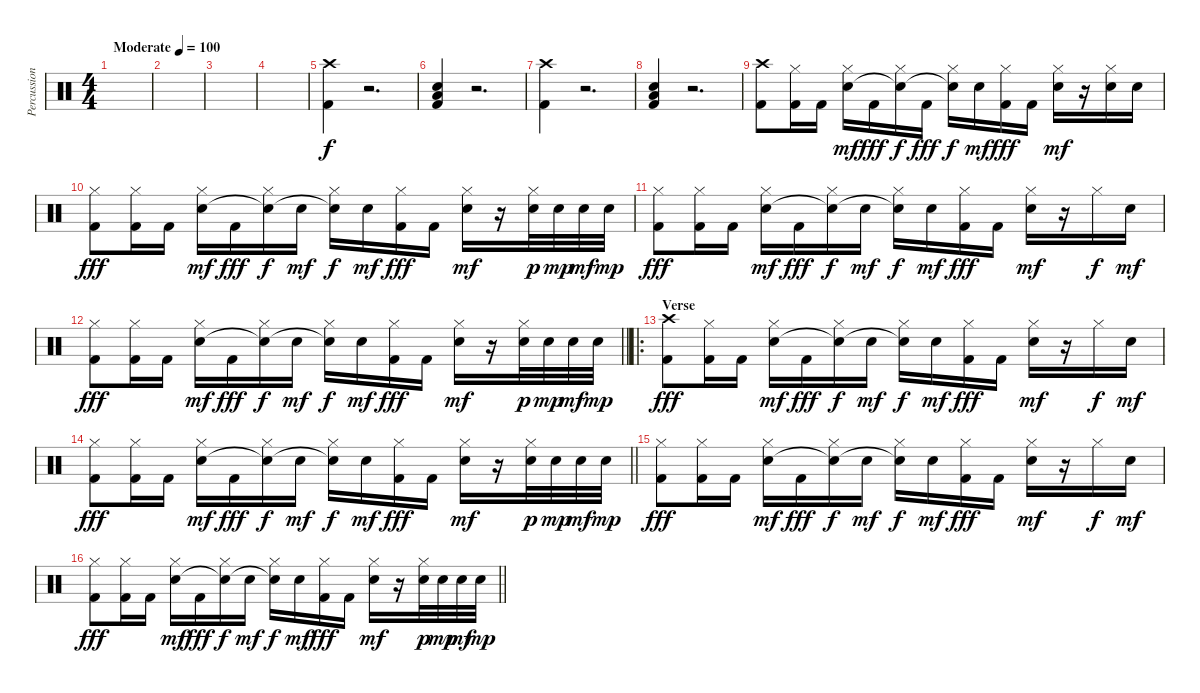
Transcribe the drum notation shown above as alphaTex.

\track ("Percussioni" "Percussion") {instrument percussion}
\staff {score}
\articulation defaults
\ts (4 4)
\tempo (100 "Moderate")
\clef neutral
\ks c
|
|
|
|
("Crash high (hit)" "Kick (hit) 2").4 r.2{d} |
("Snare (hit) 2" "Low Floor Tom (hit)" "Kick (hit) 2").4 r.2{d} |
("Crash high (hit)" "Kick (hit) 2").4 r.2{d} |
("Snare (hit) 2" "Low Floor Tom (hit)" "Kick (hit) 2").4 r.2{d} |
("Crash high (hit)" "Kick (hit) 2").8 ("Hi-Hat (closed)" "Kick (hit) 2").16 "Kick (hit) 2".16 ("Hi-Hat (closed)" "Snare (hit) 2").16{dy mf} "Kick (hit) 2".16{dy fff} ("Hi-Hat (closed)" "Snare (hit)"{t}).16{dy f} "Kick (hit) 2".16{dy fff} ("Hi-Hat (closed)" "Snare (hit)"{t}).16{dy f} "Snare (hit) 2".16{dy mf} ("Hi-Hat (closed)" "Kick (hit) 2").16{dy fff} "Kick (hit) 2".16 ("Hi-Hat (closed)" "Snare (hit) 2").16{dy mf} r.16 ("Hi-Hat (closed)" "Snare (hit) 2").16 "Snare (hit) 2".16 |
("Hi-Hat (closed)" "Kick (hit) 2").8{dy fff} ("Hi-Hat (closed)" "Kick (hit) 2").16 "Kick (hit) 2".16 ("Hi-Hat (closed)" "Snare (hit) 2").16{dy mf} "Kick (hit) 2".16{dy fff} ("Hi-Hat (closed)" "Snare (hit)"{t}).16{dy f} "Snare (hit) 2".16{dy mf} ("Hi-Hat (closed)" "Snare (hit)"{t}).16{dy f} "Snare (hit) 2".16{dy mf} ("Hi-Hat (closed)" "Kick (hit) 2").16{dy fff} "Kick (hit) 2".16 ("Hi-Hat (closed)" "Snare (hit) 2").16{dy mf} r.16 ("Hi-Hat (closed)" "Snare (hit) 2").32{dy p} "Snare (hit) 2".32{dy mp} "Snare (hit) 2".32{dy mf} "Snare (hit) 2".32{dy mp} |
("Hi-Hat (closed)" "Kick (hit) 2").8{dy fff} ("Hi-Hat (closed)" "Kick (hit) 2").16 "Kick (hit) 2".16 ("Hi-Hat (closed)" "Snare (hit) 2").16{dy mf} "Kick (hit) 2".16{dy fff} ("Hi-Hat (closed)" "Snare (hit)"{t}).16{dy f} "Snare (hit) 2".16{dy mf} ("Hi-Hat (closed)" "Snare (hit)"{t}).16{dy f} "Snare (hit) 2".16{dy mf} ("Hi-Hat (closed)" "Kick (hit) 2").16{dy fff} "Kick (hit) 2".16 ("Hi-Hat (closed)" "Snare (hit) 2").16{dy mf} r.16 "Hi-Hat (closed)".16{dy f} "Snare (hit) 2".16{dy mf} |
\barLineRight lightlight
("Hi-Hat (closed)" "Kick (hit) 2").8{dy fff} ("Hi-Hat (closed)" "Kick (hit) 2").16 "Kick (hit) 2".16 ("Hi-Hat (closed)" "Snare (hit) 2").16{dy mf} "Kick (hit) 2".16{dy fff} ("Hi-Hat (closed)" "Snare (hit)"{t}).16{dy f} "Snare (hit) 2".16{dy mf} ("Hi-Hat (closed)" "Snare (hit)"{t}).16{dy f} "Snare (hit) 2".16{dy mf} ("Hi-Hat (closed)" "Kick (hit) 2").16{dy fff} "Kick (hit) 2".16 ("Hi-Hat (closed)" "Snare (hit) 2").16{dy mf} r.16 ("Hi-Hat (closed)" "Snare (hit) 2").32{dy p} "Snare (hit) 2".32{dy mp} "Snare (hit) 2".32{dy mf} "Snare (hit) 2".32{dy mp} |
\ro
\section ("" "Verse")
("Crash high (hit)" "Kick (hit) 2").8{dy fff} ("Hi-Hat (closed)" "Kick (hit) 2").16 "Kick (hit) 2".16 ("Hi-Hat (closed)" "Snare (hit) 2").16{dy mf} "Kick (hit) 2".16{dy fff} ("Hi-Hat (closed)" "Snare (hit)"{t}).16{dy f} "Snare (hit) 2".16{dy mf} ("Hi-Hat (closed)" "Snare (hit)"{t}).16{dy f} "Snare (hit) 2".16{dy mf} ("Hi-Hat (closed)" "Kick (hit) 2").16{dy fff} "Kick (hit) 2".16 ("Hi-Hat (closed)" "Snare (hit) 2").16{dy mf} r.16 "Hi-Hat (closed)".16{dy f} "Snare (hit) 2".16{dy mf} |
\barLineRight lightlight
("Hi-Hat (closed)" "Kick (hit) 2").8{dy fff} ("Hi-Hat (closed)" "Kick (hit) 2").16 "Kick (hit) 2".16 ("Hi-Hat (closed)" "Snare (hit) 2").16{dy mf} "Kick (hit) 2".16{dy fff} ("Hi-Hat (closed)" "Snare (hit)"{t}).16{dy f} "Snare (hit) 2".16{dy mf} ("Hi-Hat (closed)" "Snare (hit)"{t}).16{dy f} "Snare (hit) 2".16{dy mf} ("Hi-Hat (closed)" "Kick (hit) 2").16{dy fff} "Kick (hit) 2".16 ("Hi-Hat (closed)" "Snare (hit) 2").16{dy mf} r.16 ("Hi-Hat (closed)" "Snare (hit) 2").32{dy p} "Snare (hit) 2".32{dy mp} "Snare (hit) 2".32{dy mf} "Snare (hit) 2".32{dy mp} |
("Hi-Hat (closed)" "Kick (hit) 2").8{dy fff} ("Hi-Hat (closed)" "Kick (hit) 2").16 "Kick (hit) 2".16 ("Hi-Hat (closed)" "Snare (hit) 2").16{dy mf} "Kick (hit) 2".16{dy fff} ("Hi-Hat (closed)" "Snare (hit)"{t}).16{dy f} "Snare (hit) 2".16{dy mf} ("Hi-Hat (closed)" "Snare (hit)"{t}).16{dy f} "Snare (hit) 2".16{dy mf} ("Hi-Hat (closed)" "Kick (hit) 2").16{dy fff} "Kick (hit) 2".16 ("Hi-Hat (closed)" "Snare (hit) 2").16{dy mf} r.16 "Hi-Hat (closed)".16{dy f} "Snare (hit) 2".16{dy mf} |
\barLineRight lightlight
("Hi-Hat (closed)" "Kick (hit) 2").8{dy fff} ("Hi-Hat (closed)" "Kick (hit) 2").16 "Kick (hit) 2".16 ("Hi-Hat (closed)" "Snare (hit) 2").16{dy mf} "Kick (hit) 2".16{dy fff} ("Hi-Hat (closed)" "Snare (hit)"{t}).16{dy f} "Snare (hit) 2".16{dy mf} ("Hi-Hat (closed)" "Snare (hit)"{t}).16{dy f} "Snare (hit) 2".16{dy mf} ("Hi-Hat (closed)" "Kick (hit) 2").16{dy fff} "Kick (hit) 2".16 ("Hi-Hat (closed)" "Snare (hit) 2").16{dy mf} r.16 ("Hi-Hat (closed)" "Snare (hit) 2").32{dy p} "Snare (hit) 2".32{dy mp} "Snare (hit) 2".32{dy mf} "Snare (hit) 2".32{dy mp}
